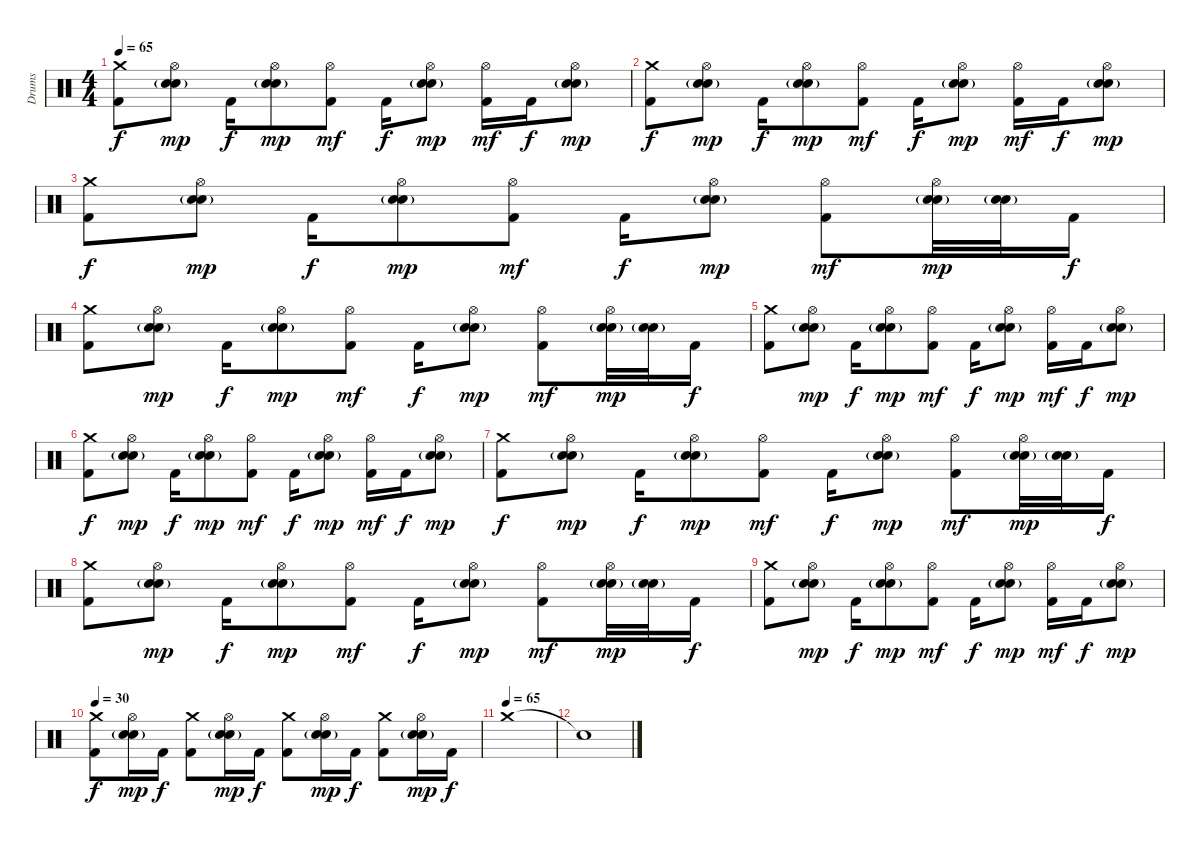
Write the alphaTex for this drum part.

\track ("Drums" "Drums") {instrument percussion}
\staff {score}
\articulation defaults
\ts (4 4)
\tempo 65
\clef neutral
\ks c
("Crash medium (hit)" "Kick (hit) 2").8{dy f} ("Hi-Hat (open)" "Snare (hit) 2"{g} "Electric Snare (hit)").8{dy mp} "Kick (hit) 2".16{dy f} ("Hi-Hat (open)" "Snare (hit) 2"{g} "Electric Snare (hit)").8{dy mp} ("Hi-Hat (open)" "Kick (hit) 2").8{dy mf} "Kick (hit) 2".16{dy f} ("Hi-Hat (open)" "Snare (hit) 2"{g} "Electric Snare (hit)").8{dy mp} ("Hi-Hat (open)" "Kick (hit) 2").16{dy mf} "Kick (hit) 2".16{dy f} ("Hi-Hat (open)" "Snare (hit) 2"{g} "Electric Snare (hit)").8{dy mp} |
("Crash medium (hit)" "Kick (hit) 2").8{dy f} ("Hi-Hat (open)" "Snare (hit) 2"{g} "Electric Snare (hit)").8{dy mp} "Kick (hit) 2".16{dy f} ("Hi-Hat (open)" "Snare (hit) 2"{g} "Electric Snare (hit)").8{dy mp} ("Hi-Hat (open)" "Kick (hit) 2").8{dy mf} "Kick (hit) 2".16{dy f} ("Hi-Hat (open)" "Snare (hit) 2"{g} "Electric Snare (hit)").8{dy mp} ("Hi-Hat (open)" "Kick (hit) 2").16{dy mf} "Kick (hit) 2".16{dy f} ("Hi-Hat (open)" "Snare (hit) 2"{g} "Electric Snare (hit)").8{dy mp} |
("Crash medium (hit)" "Kick (hit) 2").8{dy f} ("Hi-Hat (open)" "Snare (hit) 2"{g} "Electric Snare (hit)").8{dy mp} "Kick (hit) 2".16{dy f} ("Hi-Hat (open)" "Snare (hit) 2"{g} "Electric Snare (hit)").8{dy mp} ("Hi-Hat (open)" "Kick (hit) 2").8{dy mf} "Kick (hit) 2".16{dy f} ("Hi-Hat (open)" "Snare (hit) 2"{g} "Electric Snare (hit)").8{dy mp} ("Hi-Hat (open)" "Kick (hit) 2").8{dy mf} ("Hi-Hat (open)" "Snare (hit) 2"{g} "Electric Snare (hit)").32{dy mp} ("Snare (hit) 2"{g} "Electric Snare (hit)").32 "Kick (hit) 2".16{dy f} |
("Crash medium (hit)" "Kick (hit) 2").8 ("Hi-Hat (open)" "Snare (hit) 2"{g} "Electric Snare (hit)").8{dy mp} "Kick (hit) 2".16{dy f} ("Hi-Hat (open)" "Snare (hit) 2"{g} "Electric Snare (hit)").8{dy mp} ("Hi-Hat (open)" "Kick (hit) 2").8{dy mf} "Kick (hit) 2".16{dy f} ("Hi-Hat (open)" "Snare (hit) 2"{g} "Electric Snare (hit)").8{dy mp} ("Hi-Hat (open)" "Kick (hit) 2").8{dy mf} ("Hi-Hat (open)" "Snare (hit) 2"{g} "Electric Snare (hit)").32{dy mp} ("Snare (hit) 2"{g} "Electric Snare (hit)").32 "Kick (hit) 2".16{dy f} |
("Crash medium (hit)" "Kick (hit) 2").8 ("Hi-Hat (open)" "Snare (hit) 2"{g} "Electric Snare (hit)").8{dy mp} "Kick (hit) 2".16{dy f} ("Hi-Hat (open)" "Snare (hit) 2"{g} "Electric Snare (hit)").8{dy mp} ("Hi-Hat (open)" "Kick (hit) 2").8{dy mf} "Kick (hit) 2".16{dy f} ("Hi-Hat (open)" "Snare (hit) 2"{g} "Electric Snare (hit)").8{dy mp} ("Hi-Hat (open)" "Kick (hit) 2").16{dy mf} "Kick (hit) 2".16{dy f} ("Hi-Hat (open)" "Snare (hit) 2"{g} "Electric Snare (hit)").8{dy mp} |
("Crash medium (hit)" "Kick (hit) 2").8{dy f} ("Hi-Hat (open)" "Snare (hit) 2"{g} "Electric Snare (hit)").8{dy mp} "Kick (hit) 2".16{dy f} ("Hi-Hat (open)" "Snare (hit) 2"{g} "Electric Snare (hit)").8{dy mp} ("Hi-Hat (open)" "Kick (hit) 2").8{dy mf} "Kick (hit) 2".16{dy f} ("Hi-Hat (open)" "Snare (hit) 2"{g} "Electric Snare (hit)").8{dy mp} ("Hi-Hat (open)" "Kick (hit) 2").16{dy mf} "Kick (hit) 2".16{dy f} ("Hi-Hat (open)" "Snare (hit) 2"{g} "Electric Snare (hit)").8{dy mp} |
("Crash medium (hit)" "Kick (hit) 2").8{dy f} ("Hi-Hat (open)" "Snare (hit) 2"{g} "Electric Snare (hit)").8{dy mp} "Kick (hit) 2".16{dy f} ("Hi-Hat (open)" "Snare (hit) 2"{g} "Electric Snare (hit)").8{dy mp} ("Hi-Hat (open)" "Kick (hit) 2").8{dy mf} "Kick (hit) 2".16{dy f} ("Hi-Hat (open)" "Snare (hit) 2"{g} "Electric Snare (hit)").8{dy mp} ("Hi-Hat (open)" "Kick (hit) 2").8{dy mf} ("Hi-Hat (open)" "Snare (hit) 2"{g} "Electric Snare (hit)").32{dy mp} ("Snare (hit) 2"{g} "Electric Snare (hit)").32 "Kick (hit) 2".16{dy f} |
("Crash medium (hit)" "Kick (hit) 2").8 ("Hi-Hat (open)" "Snare (hit) 2"{g} "Electric Snare (hit)").8{dy mp} "Kick (hit) 2".16{dy f} ("Hi-Hat (open)" "Snare (hit) 2"{g} "Electric Snare (hit)").8{dy mp} ("Hi-Hat (open)" "Kick (hit) 2").8{dy mf} "Kick (hit) 2".16{dy f} ("Hi-Hat (open)" "Snare (hit) 2"{g} "Electric Snare (hit)").8{dy mp} ("Hi-Hat (open)" "Kick (hit) 2").8{dy mf} ("Hi-Hat (open)" "Snare (hit) 2"{g} "Electric Snare (hit)").32{dy mp} ("Snare (hit) 2"{g} "Electric Snare (hit)").32 "Kick (hit) 2".16{dy f} |
("Crash medium (hit)" "Kick (hit) 2").8 ("Hi-Hat (open)" "Snare (hit) 2"{g} "Electric Snare (hit)").8{dy mp} "Kick (hit) 2".16{dy f} ("Hi-Hat (open)" "Snare (hit) 2"{g} "Electric Snare (hit)").8{dy mp} ("Hi-Hat (open)" "Kick (hit) 2").8{dy mf} "Kick (hit) 2".16{dy f} ("Hi-Hat (open)" "Snare (hit) 2"{g} "Electric Snare (hit)").8{dy mp} ("Hi-Hat (open)" "Kick (hit) 2").16{dy mf} "Kick (hit) 2".16{dy f} ("Hi-Hat (open)" "Snare (hit) 2"{g} "Electric Snare (hit)").8{dy mp} |
\tempo 30
("Crash medium (hit)" "Kick (hit) 2").8{dy f} ("Hi-Hat (open)" "Snare (hit) 2"{g} "Electric Snare (hit)").16{dy mp} "Kick (hit) 2".16{dy f} ("Crash medium (hit)" "Kick (hit) 2").8 ("Hi-Hat (open)" "Snare (hit) 2"{g} "Electric Snare (hit)").16{dy mp} "Kick (hit) 2".16{dy f} ("Crash medium (hit)" "Kick (hit) 2").8 ("Hi-Hat (open)" "Snare (hit) 2"{g} "Electric Snare (hit)").16{dy mp} "Kick (hit) 2".16{dy f} ("Crash medium (hit)" "Kick (hit) 2").8 ("Hi-Hat (open)" "Snare (hit) 2"{g} "Electric Snare (hit)").16{dy mp} "Kick (hit) 2".16{dy f} |
\tempo (65)
"Crash medium (hit)".1 |
"Snare (hit)"{t}.1
